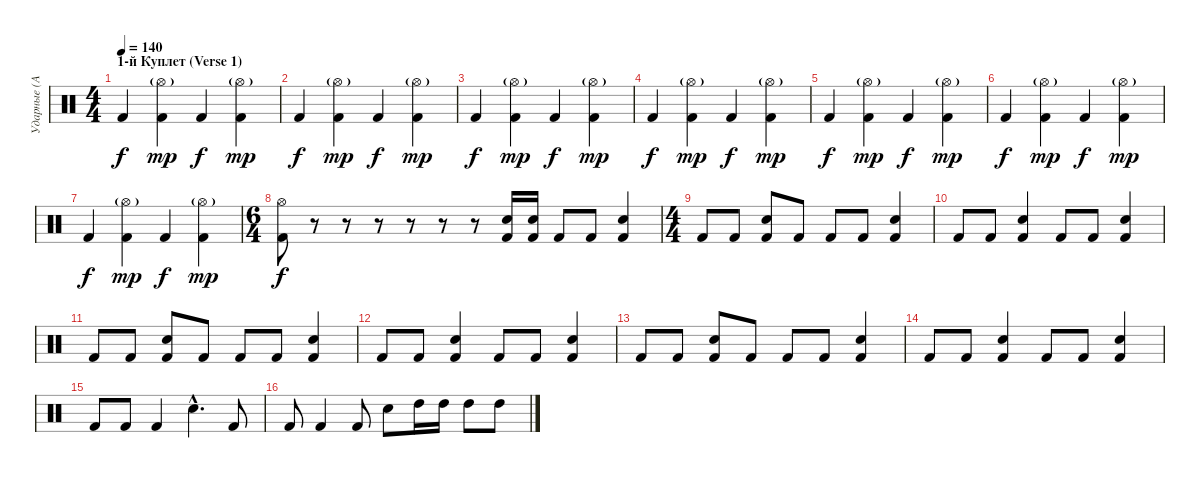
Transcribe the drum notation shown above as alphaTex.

\track ("Ударные (Алексей Барзилович)" "Ударные (А") {instrument percussion}
\staff {score}
\articulation defaults
\ts (4 4)
\section ("" "1-й Куплет (Verse 1)")
\tempo 140
\clef neutral
\ks c "Kick (hit) 2".4{dy f}
("Hi-Hat (open)"{g} "Kick (hit) 2").4{dy mp} "Kick (hit) 2".4{dy f} ("Hi-Hat (open)"{g} "Kick (hit) 2").4{dy mp} |
"Kick (hit) 2".4{dy f} ("Hi-Hat (open)"{g} "Kick (hit) 2").4{dy mp} "Kick (hit) 2".4{dy f} ("Hi-Hat (open)"{g} "Kick (hit) 2").4{dy mp} |
"Kick (hit) 2".4{dy f} ("Hi-Hat (open)"{g} "Kick (hit) 2").4{dy mp} "Kick (hit) 2".4{dy f} ("Hi-Hat (open)"{g} "Kick (hit) 2").4{dy mp} |
"Kick (hit) 2".4{dy f} ("Hi-Hat (open)"{g} "Kick (hit) 2").4{dy mp} "Kick (hit) 2".4{dy f} ("Hi-Hat (open)"{g} "Kick (hit) 2").4{dy mp} |
"Kick (hit) 2".4{dy f} ("Hi-Hat (open)"{g} "Kick (hit) 2").4{dy mp} "Kick (hit) 2".4{dy f} ("Hi-Hat (open)"{g} "Kick (hit) 2").4{dy mp} |
"Kick (hit) 2".4{dy f} ("Hi-Hat (open)"{g} "Kick (hit) 2").4{dy mp} "Kick (hit) 2".4{dy f} ("Hi-Hat (open)"{g} "Kick (hit) 2").4{dy mp} |
"Kick (hit) 2".4{dy f} ("Hi-Hat (open)"{g} "Kick (hit) 2").4{dy mp} "Kick (hit) 2".4{dy f} ("Hi-Hat (open)"{g} "Kick (hit) 2").4{dy mp} |
\ts (6 4)
("Hi-Hat (open)" "Kick (hit) 2").8{dy f} r.8 r.8 r.8 r.8 r.8 r.8 ("Electric Snare (hit)" "Kick (hit) 2").16 ("Electric Snare (hit)" "Kick (hit) 2").16 "Kick (hit) 2".8 "Kick (hit) 2".8 ("Electric Snare (hit)" "Kick (hit) 2").4 |
\ts (4 4)
"Kick (hit) 2".8 "Kick (hit) 2".8 ("Electric Snare (hit)" "Kick (hit) 2").8 "Kick (hit) 2".8 "Kick (hit) 2".8 "Kick (hit) 2".8 ("Electric Snare (hit)" "Kick (hit) 2").4 |
"Kick (hit) 2".8 "Kick (hit) 2".8 ("Electric Snare (hit)" "Kick (hit) 2").4 "Kick (hit) 2".8 "Kick (hit) 2".8 ("Electric Snare (hit)" "Kick (hit) 2").4 |
"Kick (hit) 2".8 "Kick (hit) 2".8 ("Electric Snare (hit)" "Kick (hit) 2").8 "Kick (hit) 2".8 "Kick (hit) 2".8 "Kick (hit) 2".8 ("Electric Snare (hit)" "Kick (hit) 2").4 |
"Kick (hit) 2".8 "Kick (hit) 2".8 ("Electric Snare (hit)" "Kick (hit) 2").4 "Kick (hit) 2".8 "Kick (hit) 2".8 ("Electric Snare (hit)" "Kick (hit) 2").4 |
"Kick (hit) 2".8 "Kick (hit) 2".8 ("Electric Snare (hit)" "Kick (hit) 2").8 "Kick (hit) 2".8 "Kick (hit) 2".8 "Kick (hit) 2".8 ("Electric Snare (hit)" "Kick (hit) 2").4 |
"Kick (hit) 2".8 "Kick (hit) 2".8 ("Electric Snare (hit)" "Kick (hit) 2").4 "Kick (hit) 2".8 "Kick (hit) 2".8 ("Electric Snare (hit)" "Kick (hit) 2").4 |
"Kick (hit) 2".8 "Kick (hit) 2".8 "Kick (hit) 2".4 "Electric Snare (hit)"{hac}.4{d} "Kick (hit) 2".8 |
"Kick (hit) 2".8 "Kick (hit) 2".4 "Kick (hit) 2".8 "Electric Snare (hit)".8 "High Tom (hit)".16 "High Tom (hit)".16 "High Tom (hit)".8 "High Tom (hit)".8
